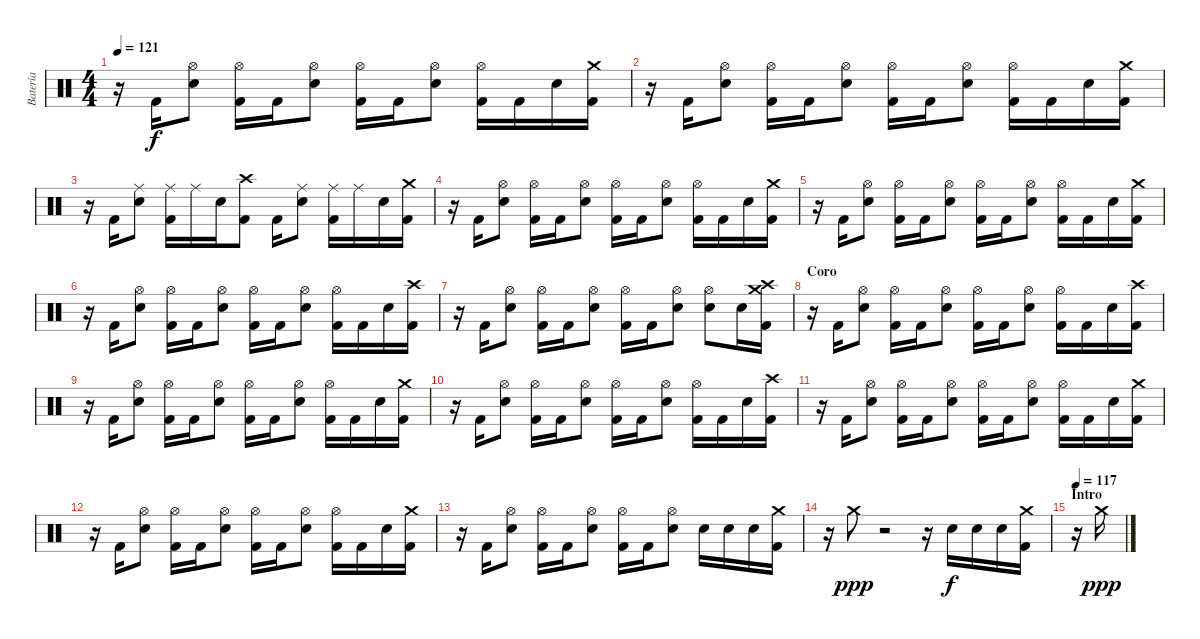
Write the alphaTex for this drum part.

\track ("Batería" "Batería") {instrument percussion}
\staff {score}
\articulation defaults
\ts (4 4)
\tempo 121
\clef neutral
\ks c
r.16{dy f} "Kick (hit) 2".16 ("Hi-Hat (open)" "Electric Snare (hit)").8 ("Hi-Hat (open)" "Kick (hit) 2").16 "Kick (hit) 2".16 ("Hi-Hat (open)" "Electric Snare (hit)").8 ("Hi-Hat (open)" "Kick (hit) 2").16 "Kick (hit) 2".16 ("Hi-Hat (open)" "Electric Snare (hit)").8 ("Hi-Hat (open)" "Kick (hit) 2").16 "Kick (hit) 2".16 "Electric Snare (hit)".16 ("Crash medium (hit)" "Kick (hit) 2").16 |
r.16 "Kick (hit) 2".16 ("Hi-Hat (open)" "Electric Snare (hit)").8 ("Hi-Hat (open)" "Kick (hit) 2").16 "Kick (hit) 2".16 ("Hi-Hat (open)" "Electric Snare (hit)").8 ("Hi-Hat (open)" "Kick (hit) 2").16 "Kick (hit) 2".16 ("Hi-Hat (open)" "Electric Snare (hit)").8 ("Hi-Hat (open)" "Kick (hit) 2").16 "Kick (hit) 2".16 "Electric Snare (hit)".16 ("Crash medium (hit)" "Kick (hit) 2").16 |
r.16 "Kick (hit) 2".16 ("Ride (middle)" "Electric Snare (hit)").8 ("Ride (middle)" "Kick (hit) 2").16 "Ride (middle)".16 "Electric Snare (hit)".16 ("Crash high (hit)" "Kick (hit) 2").8 "Kick (hit) 2".16 ("Ride (middle)" "Electric Snare (hit)").8 ("Ride (middle)" "Kick (hit) 2").16 "Ride (middle)".16 "Electric Snare (hit)".16 ("Crash medium (hit)" "Kick (hit) 2").16 |
r.16 "Kick (hit) 2".16 ("Hi-Hat (open)" "Electric Snare (hit)").8 ("Hi-Hat (open)" "Kick (hit) 2").16 "Kick (hit) 2".16 ("Hi-Hat (open)" "Electric Snare (hit)").8 ("Hi-Hat (open)" "Kick (hit) 2").16 "Kick (hit) 2".16 ("Hi-Hat (open)" "Electric Snare (hit)").8 ("Hi-Hat (open)" "Kick (hit) 2").16 "Kick (hit) 2".16 "Electric Snare (hit)".16 ("Crash medium (hit)" "Kick (hit) 2").16 |
r.16 "Kick (hit) 2".16 ("Hi-Hat (open)" "Electric Snare (hit)").8 ("Hi-Hat (open)" "Kick (hit) 2").16 "Kick (hit) 2".16 ("Hi-Hat (open)" "Electric Snare (hit)").8 ("Hi-Hat (open)" "Kick (hit) 2").16 "Kick (hit) 2".16 ("Hi-Hat (open)" "Electric Snare (hit)").8 ("Hi-Hat (open)" "Kick (hit) 2").16 "Kick (hit) 2".16 "Electric Snare (hit)".16 ("Crash medium (hit)" "Kick (hit) 2").16 |
r.16 "Kick (hit) 2".16 ("Hi-Hat (open)" "Electric Snare (hit)").8 ("Hi-Hat (open)" "Kick (hit) 2").16 "Kick (hit) 2".16 ("Hi-Hat (open)" "Electric Snare (hit)").8 ("Hi-Hat (open)" "Kick (hit) 2").16 "Kick (hit) 2".16 ("Hi-Hat (open)" "Electric Snare (hit)").8 ("Hi-Hat (open)" "Kick (hit) 2").16 "Kick (hit) 2".16 "Electric Snare (hit)".16 ("Crash high (hit)" "Kick (hit) 2").16 |
r.16 "Kick (hit) 2".16 ("Hi-Hat (open)" "Electric Snare (hit)").8 ("Hi-Hat (open)" "Kick (hit) 2").16 "Kick (hit) 2".16 ("Hi-Hat (open)" "Electric Snare (hit)").8 ("Hi-Hat (open)" "Kick (hit) 2").16 "Kick (hit) 2".16 ("Hi-Hat (open)" "Electric Snare (hit)").8 ("Hi-Hat (open)" "Electric Snare (hit)").8 "Electric Snare (hit)".16 ("Crash medium (hit)" "Crash high (hit)" "Kick (hit) 2").16 |
\section ("" "Coro")
r.16 "Kick (hit) 2".16 ("Hi-Hat (open)" "Electric Snare (hit)").8 ("Hi-Hat (open)" "Kick (hit) 2").16 "Kick (hit) 2".16 ("Hi-Hat (open)" "Electric Snare (hit)").8 ("Hi-Hat (open)" "Kick (hit) 2").16 "Kick (hit) 2".16 ("Hi-Hat (open)" "Electric Snare (hit)").8 ("Hi-Hat (open)" "Kick (hit) 2").16 "Kick (hit) 2".16 "Electric Snare (hit)".16 ("Crash high (hit)" "Kick (hit) 2").16 |
r.16 "Kick (hit) 2".16 ("Hi-Hat (open)" "Electric Snare (hit)").8 ("Hi-Hat (open)" "Kick (hit) 2").16 "Kick (hit) 2".16 ("Hi-Hat (open)" "Electric Snare (hit)").8 ("Hi-Hat (open)" "Kick (hit) 2").16 "Kick (hit) 2".16 ("Hi-Hat (open)" "Electric Snare (hit)").8 ("Hi-Hat (open)" "Kick (hit) 2").16 "Kick (hit) 2".16 "Electric Snare (hit)".16 ("Crash medium (hit)" "Kick (hit) 2").16 |
r.16 "Kick (hit) 2".16 ("Hi-Hat (open)" "Electric Snare (hit)").8 ("Hi-Hat (open)" "Kick (hit) 2").16 "Kick (hit) 2".16 ("Hi-Hat (open)" "Electric Snare (hit)").8 ("Hi-Hat (open)" "Kick (hit) 2").16 "Kick (hit) 2".16 ("Hi-Hat (open)" "Electric Snare (hit)").8 ("Hi-Hat (open)" "Kick (hit) 2").16 "Kick (hit) 2".16 "Electric Snare (hit)".16 ("Crash high (hit)" "Kick (hit) 2").16 |
r.16 "Kick (hit) 2".16 ("Hi-Hat (open)" "Electric Snare (hit)").8 ("Hi-Hat (open)" "Kick (hit) 2").16 "Kick (hit) 2".16 ("Hi-Hat (open)" "Electric Snare (hit)").8 ("Hi-Hat (open)" "Kick (hit) 2").16 "Kick (hit) 2".16 ("Hi-Hat (open)" "Electric Snare (hit)").8 ("Hi-Hat (open)" "Kick (hit) 2").16 "Kick (hit) 2".16 "Electric Snare (hit)".16 ("Crash medium (hit)" "Kick (hit) 2").16 |
r.16 "Kick (hit) 2".16 ("Hi-Hat (open)" "Electric Snare (hit)").8 ("Hi-Hat (open)" "Kick (hit) 2").16 "Kick (hit) 2".16 ("Hi-Hat (open)" "Electric Snare (hit)").8 ("Hi-Hat (open)" "Kick (hit) 2").16 "Kick (hit) 2".16 ("Hi-Hat (open)" "Electric Snare (hit)").8 ("Hi-Hat (open)" "Kick (hit) 2").16 "Kick (hit) 2".16 "Electric Snare (hit)".16 ("Crash medium (hit)" "Kick (hit) 2").16 |
r.16 "Kick (hit) 2".16 ("Hi-Hat (open)" "Electric Snare (hit)").8 ("Hi-Hat (open)" "Kick (hit) 2").16 "Kick (hit) 2".16 ("Hi-Hat (open)" "Electric Snare (hit)").8 ("Hi-Hat (open)" "Kick (hit) 2").16 "Kick (hit) 2".16 ("Hi-Hat (open)" "Electric Snare (hit)").8 "Electric Snare (hit)".16 "Electric Snare (hit)".16 "Electric Snare (hit)".16 ("Crash medium (hit)" "Kick (hit) 2").16 |
r.16 "Crash medium (hit)".8{dy ppp} r.2 r.16 "Electric Snare (hit)".16{dy f} "Electric Snare (hit)".16 "Electric Snare (hit)".16 ("Crash medium (hit)" "Kick (hit) 2").16 |
\section ("" "Intro")
\tempo 117
r.16 "Crash medium (hit)".16{dy ppp}
